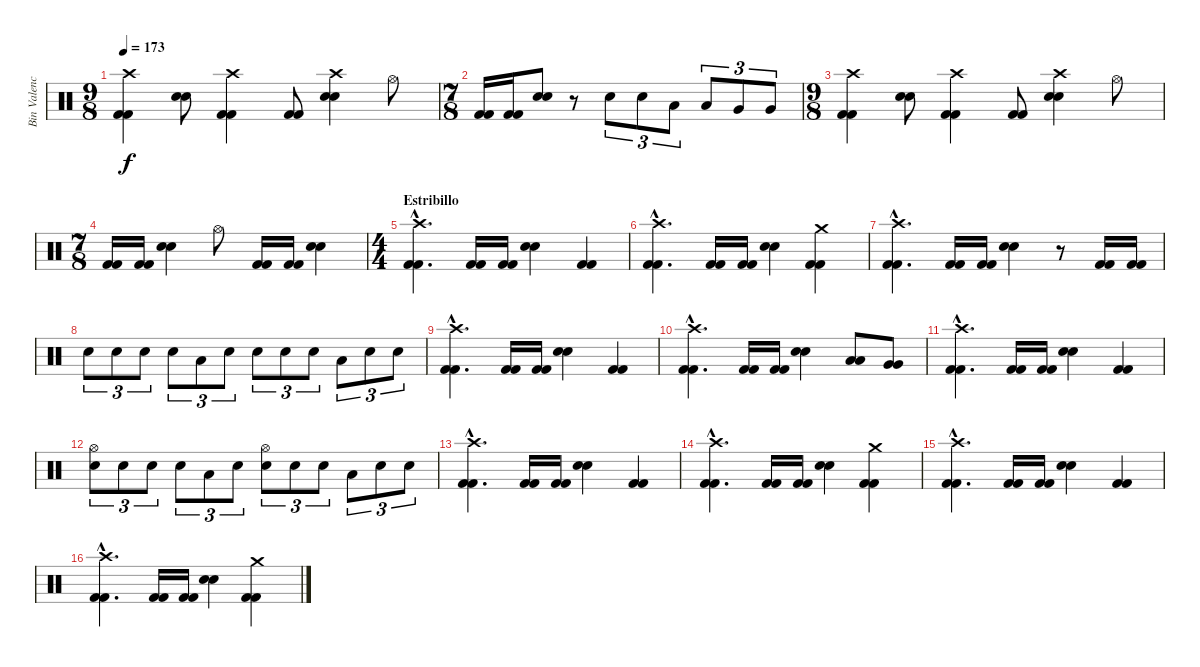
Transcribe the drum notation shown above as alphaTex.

\track ("Bin Valencia (Bateria)" "Bin Valenc") {instrument percussion}
\staff {score}
\articulation defaults
\ts (9 8)
\tempo 173
\clef neutral
\ks c
("Crash high (hit)" "Kick (hit) 2" "Kick (hit) 2").4{dy f} ("Snare (hit) 2" "Snare (hit) 2").8 ("Crash high (hit)" "Kick (hit) 2" "Kick (hit) 2").4 ("Kick (hit) 2" "Kick (hit) 2").8 ("Crash high (hit)" "Snare (hit) 2" "Snare (hit) 2").4 "Hi-Hat (open)".8 |
\ts (7 8)
("Kick (hit) 2" "Kick (hit) 2").16 ("Kick (hit) 2" "Kick (hit) 2").16 ("Snare (hit) 2" "Snare (hit) 2").8 r.8 "Snare (hit) 2".8{tu (3 2)} "Snare (hit) 2".8{tu (3 2)} "Low Tom (hit)".8{tu (3 2)} "Low Tom (hit)".8{tu (3 2)} "Very Low Tom (hit)".8{tu (3 2)} "Very Low Tom (hit)".8{tu (3 2)} |
\ts (9 8)
("Crash high (hit)" "Kick (hit) 2" "Kick (hit) 2").4 ("Snare (hit) 2" "Snare (hit) 2").8 ("Crash high (hit)" "Kick (hit) 2" "Kick (hit) 2").4 ("Kick (hit) 2" "Kick (hit) 2").8 ("Crash high (hit)" "Snare (hit) 2" "Snare (hit) 2").4 "Hi-Hat (open)".8 |
\ts (7 8)
("Kick (hit) 2" "Kick (hit) 2").16 ("Kick (hit) 2" "Kick (hit) 2").16 ("Snare (hit) 2" "Snare (hit) 2").4 "Hi-Hat (open)".8 ("Kick (hit) 2" "Kick (hit) 2").16 ("Kick (hit) 2" "Kick (hit) 2").16 ("Snare (hit) 2" "Snare (hit) 2").4 |
\ts (4 4)
\section ("" "Estribillo")
("Crash high (hit)"{hac} "Kick (hit) 2"{hac} "Kick (hit) 2"{hac}).4{d} ("Kick (hit) 2" "Kick (hit) 2").16 ("Kick (hit) 2" "Kick (hit) 2").16 ("Snare (hit) 2" "Snare (hit) 2").4 ("Kick (hit) 2" "Kick (hit) 2").4 |
("Crash high (hit)"{hac} "Kick (hit) 2"{hac} "Kick (hit) 2"{hac}).4{d} ("Kick (hit) 2" "Kick (hit) 2").16 ("Kick (hit) 2" "Kick (hit) 2").16 ("Snare (hit) 2" "Snare (hit) 2").4 ("Crash medium (hit)" "Kick (hit) 2" "Kick (hit) 2").4 |
("Crash high (hit)"{hac} "Kick (hit) 2"{hac} "Kick (hit) 2"{hac}).4{d} ("Kick (hit) 2" "Kick (hit) 2").16 ("Kick (hit) 2" "Kick (hit) 2").16 ("Snare (hit) 2" "Snare (hit) 2").4 r.8 ("Kick (hit) 2" "Kick (hit) 2").16 ("Kick (hit) 2" "Kick (hit) 2").16 |
"Snare (hit) 2".8{tu (3 2)} "Snare (hit) 2".8{tu (3 2)} "Snare (hit) 2".8{tu (3 2)} "Snare (hit) 2".8{tu (3 2)} "Low Tom (hit)".8{tu (3 2)} "Snare (hit) 2".8{tu (3 2)} "Snare (hit) 2".8{tu (3 2)} "Snare (hit) 2".8{tu (3 2)} "Snare (hit) 2".8{tu (3 2)} "Low Tom (hit)".8{tu (3 2)} "Snare (hit) 2".8{tu (3 2)} "Snare (hit) 2".8{tu (3 2)} |
("Crash high (hit)"{hac} "Kick (hit) 2"{hac} "Kick (hit) 2"{hac}).4{d} ("Kick (hit) 2" "Kick (hit) 2").16 ("Kick (hit) 2" "Kick (hit) 2").16 ("Snare (hit) 2" "Snare (hit) 2").4 ("Kick (hit) 2" "Kick (hit) 2").4 |
("Crash high (hit)"{hac} "Kick (hit) 2"{hac} "Kick (hit) 2"{hac}).4{d} ("Kick (hit) 2" "Kick (hit) 2").16 ("Kick (hit) 2" "Kick (hit) 2").16 ("Snare (hit) 2" "Snare (hit) 2").4 ("Low Tom (hit)" "Low Tom (hit)").8 ("Very Low Tom (hit)" "Very Low Tom (hit)").8 |
("Crash high (hit)"{hac} "Kick (hit) 2"{hac} "Kick (hit) 2"{hac}).4{d} ("Kick (hit) 2" "Kick (hit) 2").16 ("Kick (hit) 2" "Kick (hit) 2").16 ("Snare (hit) 2" "Snare (hit) 2").4 ("Kick (hit) 2" "Kick (hit) 2").4 |
("Hi-Hat (open)" "Snare (hit) 2").8{tu (3 2)} "Snare (hit) 2".8{tu (3 2)} "Snare (hit) 2".8{tu (3 2)} "Snare (hit) 2".8{tu (3 2)} "Low Tom (hit)".8{tu (3 2)} "Snare (hit) 2".8{tu (3 2)} ("Hi-Hat (open)" "Snare (hit) 2").8{tu (3 2)} "Snare (hit) 2".8{tu (3 2)} "Snare (hit) 2".8{tu (3 2)} "Low Tom (hit)".8{tu (3 2)} "Snare (hit) 2".8{tu (3 2)} "Snare (hit) 2".8{tu (3 2)} |
("Crash high (hit)"{hac} "Kick (hit) 2"{hac} "Kick (hit) 2"{hac}).4{d} ("Kick (hit) 2" "Kick (hit) 2").16 ("Kick (hit) 2" "Kick (hit) 2").16 ("Snare (hit) 2" "Snare (hit) 2").4 ("Kick (hit) 2" "Kick (hit) 2").4 |
("Crash high (hit)"{hac} "Kick (hit) 2"{hac} "Kick (hit) 2"{hac}).4{d} ("Kick (hit) 2" "Kick (hit) 2").16 ("Kick (hit) 2" "Kick (hit) 2").16 ("Snare (hit) 2" "Snare (hit) 2").4 ("Crash medium (hit)" "Kick (hit) 2" "Kick (hit) 2").4 |
("Crash high (hit)"{hac} "Kick (hit) 2"{hac} "Kick (hit) 2"{hac}).4{d} ("Kick (hit) 2" "Kick (hit) 2").16 ("Kick (hit) 2" "Kick (hit) 2").16 ("Snare (hit) 2" "Snare (hit) 2").4 ("Kick (hit) 2" "Kick (hit) 2").4 |
("Crash high (hit)"{hac} "Kick (hit) 2"{hac} "Kick (hit) 2"{hac}).4{d} ("Kick (hit) 2" "Kick (hit) 2").16 ("Kick (hit) 2" "Kick (hit) 2").16 ("Snare (hit) 2" "Snare (hit) 2").4 ("Crash medium (hit)" "Kick (hit) 2" "Kick (hit) 2").4
